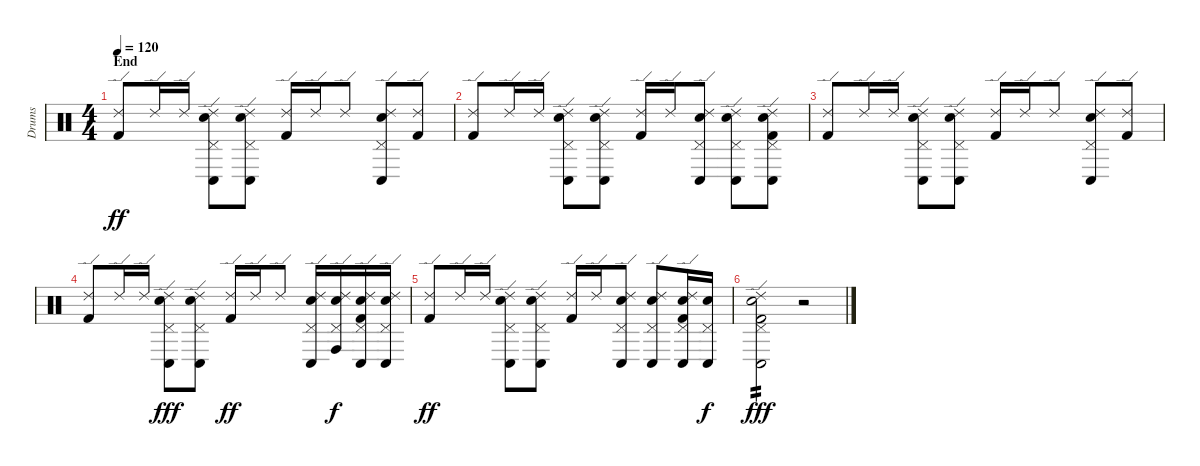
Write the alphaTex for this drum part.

\track ("Drums" "Drums") {instrument percussion}
\staff {score}
\articulation defaults
\ts (4 4)
\section ("" "End")
\tempo 120
\clef neutral
\ks c
("Ride (edge) 2" "Kick (hit) 2").8{dy ff} "Ride (edge) 2".16 "Ride (edge) 2".16 ("Ride (edge) 2" "Pedal Hi-Hat (hit)" "Conga low (hit)" "Electric Snare (hit)").8 ("Ride (edge) 2" "Pedal Hi-Hat (hit)" "Conga low (hit)" "Electric Snare (hit)").8 ("Ride (edge) 2" "Kick (hit) 2").16 "Ride (edge) 2".16 "Ride (edge) 2".8 ("Ride (edge) 2" "Pedal Hi-Hat (hit)" "Conga low (hit)" "Electric Snare (hit)").8 ("Ride (edge) 2" "Kick (hit) 2").8 |
("Ride (edge) 2" "Kick (hit) 2").8 "Ride (edge) 2".16 "Ride (edge) 2".16 ("Ride (edge) 2" "Pedal Hi-Hat (hit)" "Conga low (hit)" "Electric Snare (hit)").8 ("Ride (edge) 2" "Pedal Hi-Hat (hit)" "Conga low (hit)" "Electric Snare (hit)").8 ("Ride (edge) 2" "Kick (hit) 2").16 "Ride (edge) 2".16 ("Ride (edge) 2" "Pedal Hi-Hat (hit)" "Conga low (hit)" "Electric Snare (hit)").8 ("Ride (edge) 2" "Pedal Hi-Hat (hit)" "Conga low (hit)" "Electric Snare (hit)").8 ("Ride (edge) 2" "Pedal Hi-Hat (hit)" "Conga low (hit)" "Electric Snare (hit)" "Kick (hit) 2").8 |
("Ride (edge) 2" "Kick (hit) 2").8 "Ride (edge) 2".16 "Ride (edge) 2".16 ("Ride (edge) 2" "Pedal Hi-Hat (hit)" "Conga low (hit)" "Electric Snare (hit)").8 ("Ride (edge) 2" "Pedal Hi-Hat (hit)" "Conga low (hit)" "Electric Snare (hit)").8 ("Ride (edge) 2" "Kick (hit) 2").16 "Ride (edge) 2".16 "Ride (edge) 2".8 ("Ride (edge) 2" "Pedal Hi-Hat (hit)" "Conga low (hit)" "Electric Snare (hit)").8 ("Ride (edge) 2" "Kick (hit) 2").8 |
("Ride (edge) 2" "Kick (hit) 2").8 "Ride (edge) 2".16 "Ride (edge) 2".16 ("Ride (edge) 2" "Pedal Hi-Hat (hit)" "Conga low (hit)" "Electric Snare (hit)").8{dy fff} ("Ride (edge) 2" "Pedal Hi-Hat (hit)" "Conga low (hit)" "Electric Snare (hit)").8 ("Ride (edge) 2" "Kick (hit) 2").16{dy ff} "Ride (edge) 2".16 "Ride (edge) 2".8 ("Ride (edge) 2" "Pedal Hi-Hat (hit)" "Conga low (hit)" "Electric Snare (hit)").16 ("Ride (edge) 2" "Pedal Hi-Hat (hit)" "Conga high (hit)" "Electric Snare (hit)").16{dy f} ("Ride (edge) 2" "Pedal Hi-Hat (hit)" "Conga low (hit)" "Electric Snare (hit)" "Kick (hit) 2").16 ("Ride (edge) 2" "Pedal Hi-Hat (hit)" "Conga low (hit)" "Electric Snare (hit)").16 |
("Ride (edge) 2" "Kick (hit) 2").8{dy ff} "Ride (edge) 2".16 "Ride (edge) 2".16 ("Ride (edge) 2" "Pedal Hi-Hat (hit)" "Conga low (hit)" "Electric Snare (hit)").8 ("Ride (edge) 2" "Pedal Hi-Hat (hit)" "Conga low (hit)" "Electric Snare (hit)").8 ("Ride (edge) 2" "Kick (hit) 2").16 "Ride (edge) 2".16 ("Ride (edge) 2" "Pedal Hi-Hat (hit)" "Conga low (hit)" "Electric Snare (hit)").8 ("Ride (edge) 2" "Pedal Hi-Hat (hit)" "Conga low (hit)" "Electric Snare (hit)").8 ("Ride (edge) 2" "Pedal Hi-Hat (hit)" "Conga low (hit)" "Electric Snare (hit)" "Kick (hit) 2").16 ("Pedal Hi-Hat (hit)" "Conga low (hit)" "Electric Snare (hit)").16{dy f} |
("Ride (edge) 2" "Pedal Hi-Hat (hit)" "Conga low (hit)" "Electric Snare (hit)" "Kick (hit) 2").2{tp 2 dy fff} r.2
